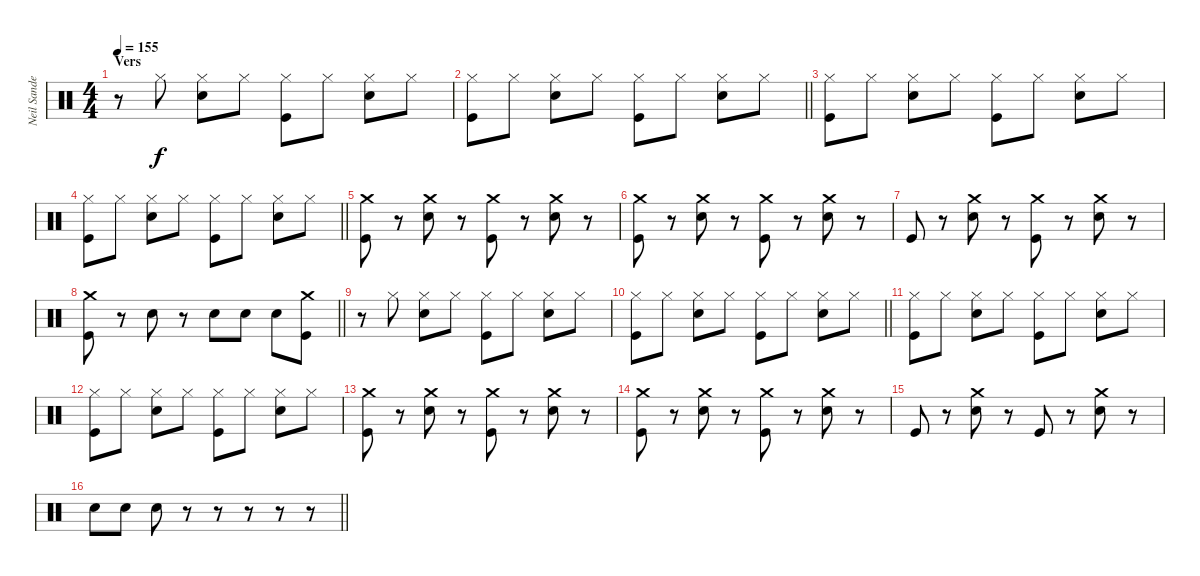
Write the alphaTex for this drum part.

\track ("Neil Sanderson" "Neil Sande") {instrument percussion}
\staff {score}
\articulation defaults
\ts (4 4)
\section ("" "Vers")
\tempo 155
\clef neutral
\ks c
r.8{dy f} "Hi-Hat (closed)".8 ("Electric Snare (hit)" "Hi-Hat (closed)").8 "Hi-Hat (closed)".8 ("Kick (hit)" "Hi-Hat (closed)").8 "Hi-Hat (closed)".8 ("Electric Snare (hit)" "Hi-Hat (closed)").8 "Hi-Hat (closed)".8 |
\barLineRight lightlight
("Kick (hit)" "Hi-Hat (closed)").8 "Hi-Hat (closed)".8 ("Electric Snare (hit)" "Hi-Hat (closed)").8 "Hi-Hat (closed)".8 ("Kick (hit)" "Hi-Hat (closed)").8 "Hi-Hat (closed)".8 ("Electric Snare (hit)" "Hi-Hat (closed)").8 "Hi-Hat (closed)".8 |
("Kick (hit)" "Hi-Hat (closed)").8 "Hi-Hat (closed)".8 ("Electric Snare (hit)" "Hi-Hat (closed)").8 "Hi-Hat (closed)".8 ("Kick (hit)" "Hi-Hat (closed)").8 "Hi-Hat (closed)".8 ("Electric Snare (hit)" "Hi-Hat (closed)").8 "Hi-Hat (closed)".8 |
\barLineRight lightlight
("Kick (hit)" "Hi-Hat (closed)").8 "Hi-Hat (closed)".8 ("Electric Snare (hit)" "Hi-Hat (closed)").8 "Hi-Hat (closed)".8 ("Kick (hit)" "Hi-Hat (closed)").8 "Hi-Hat (closed)".8 ("Electric Snare (hit)" "Hi-Hat (closed)").8 "Hi-Hat (closed)".8 |
("Kick (hit)" "Crash medium (hit)").8 r.8 ("Electric Snare (hit)" "Crash medium (hit)").8 r.8 ("Kick (hit)" "Crash medium (hit)").8 r.8 ("Electric Snare (hit)" "Crash medium (hit)").8 r.8 |
("Kick (hit)" "Crash medium (hit)").8 r.8 ("Electric Snare (hit)" "Crash medium (hit)").8 r.8 ("Kick (hit)" "Crash medium (hit)").8 r.8 ("Electric Snare (hit)" "Crash medium (hit)").8 r.8 |
"Kick (hit)".8 r.8 ("Electric Snare (hit)" "Crash medium (hit)").8 r.8 ("Kick (hit)" "Crash medium (hit)").8 r.8 ("Electric Snare (hit)" "Crash medium (hit)").8 r.8 |
\barLineRight lightlight
("Kick (hit)" "Crash medium (hit)").8 r.8 "Electric Snare (hit)".8 r.8 "Electric Snare (hit)".8 "Electric Snare (hit)".8 "Electric Snare (hit)".8 ("Kick (hit)" "Crash medium (hit)").8 |
r.8 "Hi-Hat (closed)".8 ("Electric Snare (hit)" "Hi-Hat (closed)").8 "Hi-Hat (closed)".8 ("Kick (hit)" "Hi-Hat (closed)").8 "Hi-Hat (closed)".8 ("Electric Snare (hit)" "Hi-Hat (closed)").8 "Hi-Hat (closed)".8 |
\barLineRight lightlight
("Kick (hit)" "Hi-Hat (closed)").8 "Hi-Hat (closed)".8 ("Electric Snare (hit)" "Hi-Hat (closed)").8 "Hi-Hat (closed)".8 ("Kick (hit)" "Hi-Hat (closed)").8 "Hi-Hat (closed)".8 ("Electric Snare (hit)" "Hi-Hat (closed)").8 "Hi-Hat (closed)".8 |
("Kick (hit)" "Hi-Hat (closed)").8 "Hi-Hat (closed)".8 ("Electric Snare (hit)" "Hi-Hat (closed)").8 "Hi-Hat (closed)".8 ("Kick (hit)" "Hi-Hat (closed)").8 "Hi-Hat (closed)".8 ("Electric Snare (hit)" "Hi-Hat (closed)").8 "Hi-Hat (closed)".8 |
("Kick (hit)" "Hi-Hat (closed)").8 "Hi-Hat (closed)".8 ("Electric Snare (hit)" "Hi-Hat (closed)").8 "Hi-Hat (closed)".8 ("Kick (hit)" "Hi-Hat (closed)").8 "Hi-Hat (closed)".8 ("Electric Snare (hit)" "Hi-Hat (closed)").8 "Hi-Hat (closed)".8 |
("Kick (hit)" "Crash medium (hit)").8 r.8 ("Electric Snare (hit)" "Crash medium (hit)").8 r.8 ("Kick (hit)" "Crash medium (hit)").8 r.8 ("Electric Snare (hit)" "Crash medium (hit)").8 r.8 |
("Kick (hit)" "Crash medium (hit)").8 r.8 ("Electric Snare (hit)" "Crash medium (hit)").8 r.8 ("Kick (hit)" "Crash medium (hit)").8 r.8 ("Electric Snare (hit)" "Crash medium (hit)").8 r.8 |
"Kick (hit)".8 r.8 ("Electric Snare (hit)" "Crash medium (hit)").8 r.8 "Kick (hit)".8 r.8 ("Electric Snare (hit)" "Crash medium (hit)").8 r.8 |
\barLineRight lightlight "Electric Snare (hit)".8 "Electric Snare (hit)".8 "Electric Snare (hit)".8
r.8 r.8 r.8 r.8 r.8
